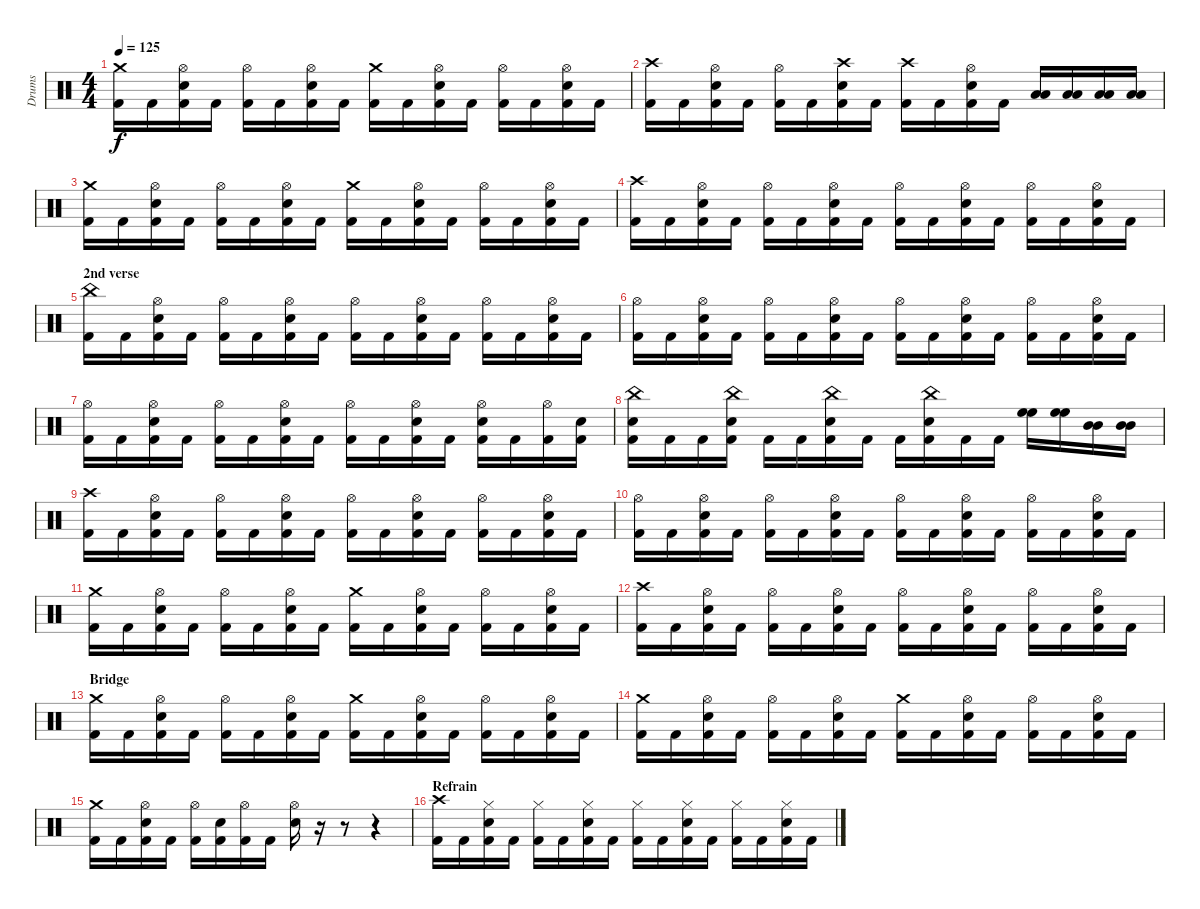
\track ("Drums" "Drums") {instrument percussion}
\staff {score}
\articulation defaults
\ts (4 4)
\tempo 125
\clef neutral
\ks c
("Crash medium (hit)" "Kick (hit) 2").16{dy f} "Kick (hit) 2".16 ("Hi-Hat (open)" "Snare (hit) 2" "Kick (hit) 2").16 "Kick (hit) 2".16 ("Hi-Hat (open)" "Kick (hit) 2").16 "Kick (hit) 2".16 ("Hi-Hat (open)" "Snare (hit) 2" "Kick (hit) 2").16 "Kick (hit) 2".16 ("Crash medium (hit)" "Kick (hit) 2").16 "Kick (hit) 2".16 ("Hi-Hat (open)" "Snare (hit) 2" "Kick (hit) 2").16 "Kick (hit) 2".16 ("Hi-Hat (open)" "Kick (hit) 2").16 "Kick (hit) 2".16 ("Hi-Hat (open)" "Snare (hit) 2" "Kick (hit) 2").16 "Kick (hit) 2".16 |
("Crash high (hit)" "Kick (hit) 2").16 "Kick (hit) 2".16 ("Hi-Hat (open)" "Snare (hit) 2" "Kick (hit) 2").16 "Kick (hit) 2".16 ("Hi-Hat (open)" "Kick (hit) 2").16 "Kick (hit) 2".16 ("Crash high (hit)" "Snare (hit) 2" "Kick (hit) 2").16 "Kick (hit) 2".16 ("Crash high (hit)" "Kick (hit) 2").16 "Kick (hit) 2".16 ("Hi-Hat (open)" "Snare (hit) 2" "Kick (hit) 2").16 "Kick (hit) 2".16 ("Low Tom (hit)" "Low Tom (hit)").16 ("Low Tom (hit)" "Low Tom (hit)").16 ("Low Floor Tom (hit)" "Low Floor Tom (hit)").16 ("Low Floor Tom (hit)" "Low Floor Tom (hit)").16 |
("Crash medium (hit)" "Kick (hit) 2").16 "Kick (hit) 2".16 ("Hi-Hat (open)" "Snare (hit) 2" "Kick (hit) 2").16 "Kick (hit) 2".16 ("Hi-Hat (open)" "Kick (hit) 2").16 "Kick (hit) 2".16 ("Hi-Hat (open)" "Snare (hit) 2" "Kick (hit) 2").16 "Kick (hit) 2".16 ("Crash medium (hit)" "Kick (hit) 2").16 "Kick (hit) 2".16 ("Hi-Hat (open)" "Snare (hit) 2" "Kick (hit) 2").16 "Kick (hit) 2".16 ("Hi-Hat (open)" "Kick (hit) 2").16 "Kick (hit) 2".16 ("Hi-Hat (open)" "Snare (hit) 2" "Kick (hit) 2").16 "Kick (hit) 2".16 |
("Crash high (hit)" "Kick (hit) 2").16 "Kick (hit) 2".16 ("Hi-Hat (open)" "Snare (hit) 2" "Kick (hit) 2").16 "Kick (hit) 2".16 ("Hi-Hat (open)" "Kick (hit) 2").16 "Kick (hit) 2".16 ("Hi-Hat (open)" "Snare (hit) 2" "Kick (hit) 2").16 "Kick (hit) 2".16 ("Hi-Hat (open)" "Kick (hit) 2").16 "Kick (hit) 2".16 ("Hi-Hat (open)" "Snare (hit) 2" "Kick (hit) 2").16 "Kick (hit) 2".16 ("Hi-Hat (open)" "Kick (hit) 2").16 "Kick (hit) 2".16 ("Hi-Hat (open)" "Snare (hit) 2" "Kick (hit) 2").16 "Kick (hit) 2".16 |
\section ("" "2nd verse")
("China (hit)" "Kick (hit) 2").16 "Kick (hit) 2".16 ("Hi-Hat (open)" "Snare (hit) 2" "Kick (hit) 2").16 "Kick (hit) 2".16 ("Hi-Hat (open)" "Kick (hit) 2").16 "Kick (hit) 2".16 ("Hi-Hat (open)" "Snare (hit) 2" "Kick (hit) 2").16 "Kick (hit) 2".16 ("Hi-Hat (open)" "Kick (hit) 2").16 "Kick (hit) 2".16 ("Hi-Hat (open)" "Snare (hit) 2" "Kick (hit) 2").16 "Kick (hit) 2".16 ("Hi-Hat (open)" "Kick (hit) 2").16 "Kick (hit) 2".16 ("Hi-Hat (open)" "Snare (hit) 2" "Kick (hit) 2").16 "Kick (hit) 2".16 |
("Hi-Hat (open)" "Kick (hit) 2").16 "Kick (hit) 2".16 ("Hi-Hat (open)" "Snare (hit) 2" "Kick (hit) 2").16 "Kick (hit) 2".16 ("Hi-Hat (open)" "Kick (hit) 2").16 "Kick (hit) 2".16 ("Hi-Hat (open)" "Snare (hit) 2" "Kick (hit) 2").16 "Kick (hit) 2".16 ("Hi-Hat (open)" "Kick (hit) 2").16 "Kick (hit) 2".16 ("Hi-Hat (open)" "Snare (hit) 2" "Kick (hit) 2").16 "Kick (hit) 2".16 ("Hi-Hat (open)" "Kick (hit) 2").16 "Kick (hit) 2".16 ("Hi-Hat (open)" "Snare (hit) 2" "Kick (hit) 2").16 "Kick (hit) 2".16 |
("Hi-Hat (open)" "Kick (hit) 2").16 "Kick (hit) 2".16 ("Hi-Hat (open)" "Snare (hit) 2" "Kick (hit) 2").16 "Kick (hit) 2".16 ("Hi-Hat (open)" "Kick (hit) 2").16 "Kick (hit) 2".16 ("Hi-Hat (open)" "Snare (hit) 2" "Kick (hit) 2").16 "Kick (hit) 2".16 ("Hi-Hat (open)" "Kick (hit) 2").16 "Kick (hit) 2".16 ("Hi-Hat (open)" "Snare (hit) 2" "Kick (hit) 2").16 "Kick (hit) 2".16 ("Hi-Hat (open)" "Snare (hit) 2" "Kick (hit) 2").16 "Kick (hit) 2".16 ("Hi-Hat (open)" "Kick (hit) 2").16 ("Snare (hit) 2" "Kick (hit) 2").16 |
("China (hit)" "Snare (hit) 2" "Kick (hit) 2").16 "Kick (hit) 2".16 "Kick (hit) 2".16 ("China (hit)" "Snare (hit) 2" "Kick (hit) 2").16 "Kick (hit) 2".16 "Kick (hit) 2".16 ("China (hit)" "Snare (hit) 2" "Kick (hit) 2").16 "Kick (hit) 2".16 "Kick (hit) 2".16 ("China (hit)" "Snare (hit) 2" "Kick (hit) 2").16 "Kick (hit) 2".16 "Kick (hit) 2".16 ("High Floor Tom (hit)" "High Floor Tom (hit)").16 ("High Floor Tom (hit)" "High Floor Tom (hit)").16 ("Mid Tom (hit)" "Mid Tom (hit)").16 ("Mid Tom (hit)" "Mid Tom (hit)").16 |
("Crash high (hit)" "Kick (hit) 2").16 "Kick (hit) 2".16 ("Hi-Hat (open)" "Snare (hit) 2" "Kick (hit) 2").16 "Kick (hit) 2".16 ("Hi-Hat (open)" "Kick (hit) 2").16 "Kick (hit) 2".16 ("Hi-Hat (open)" "Snare (hit) 2" "Kick (hit) 2").16 "Kick (hit) 2".16 ("Hi-Hat (open)" "Kick (hit) 2").16 "Kick (hit) 2".16 ("Hi-Hat (open)" "Snare (hit) 2" "Kick (hit) 2").16 "Kick (hit) 2".16 ("Hi-Hat (open)" "Kick (hit) 2").16 "Kick (hit) 2".16 ("Hi-Hat (open)" "Snare (hit) 2" "Kick (hit) 2").16 "Kick (hit) 2".16 |
("Hi-Hat (open)" "Kick (hit) 2").16 "Kick (hit) 2".16 ("Hi-Hat (open)" "Snare (hit) 2" "Kick (hit) 2").16 "Kick (hit) 2".16 ("Hi-Hat (open)" "Kick (hit) 2").16 "Kick (hit) 2".16 ("Hi-Hat (open)" "Snare (hit) 2" "Kick (hit) 2").16 "Kick (hit) 2".16 ("Hi-Hat (open)" "Kick (hit) 2").16 "Kick (hit) 2".16 ("Hi-Hat (open)" "Snare (hit) 2" "Kick (hit) 2").16 "Kick (hit) 2".16 ("Hi-Hat (open)" "Kick (hit) 2").16 "Kick (hit) 2".16 ("Hi-Hat (open)" "Snare (hit) 2" "Kick (hit) 2").16 "Kick (hit) 2".16 |
("Crash medium (hit)" "Kick (hit) 2").16 "Kick (hit) 2".16 ("Hi-Hat (open)" "Snare (hit) 2" "Kick (hit) 2").16 "Kick (hit) 2".16 ("Hi-Hat (open)" "Kick (hit) 2").16 "Kick (hit) 2".16 ("Hi-Hat (open)" "Snare (hit) 2" "Kick (hit) 2").16 "Kick (hit) 2".16 ("Crash medium (hit)" "Kick (hit) 2").16 "Kick (hit) 2".16 ("Hi-Hat (open)" "Snare (hit) 2" "Kick (hit) 2").16 "Kick (hit) 2".16 ("Hi-Hat (open)" "Kick (hit) 2").16 "Kick (hit) 2".16 ("Hi-Hat (open)" "Snare (hit) 2" "Kick (hit) 2").16 "Kick (hit) 2".16 |
("Crash high (hit)" "Kick (hit) 2").16 "Kick (hit) 2".16 ("Hi-Hat (open)" "Snare (hit) 2" "Kick (hit) 2").16 "Kick (hit) 2".16 ("Hi-Hat (open)" "Kick (hit) 2").16 "Kick (hit) 2".16 ("Hi-Hat (open)" "Snare (hit) 2" "Kick (hit) 2").16 "Kick (hit) 2".16 ("Hi-Hat (open)" "Kick (hit) 2").16 "Kick (hit) 2".16 ("Hi-Hat (open)" "Snare (hit) 2" "Kick (hit) 2").16 "Kick (hit) 2".16 ("Hi-Hat (open)" "Kick (hit) 2").16 "Kick (hit) 2".16 ("Hi-Hat (open)" "Snare (hit) 2" "Kick (hit) 2").16 "Kick (hit) 2".16 |
\section ("" "Bridge")
("Crash medium (hit)" "Kick (hit) 2").16 "Kick (hit) 2".16 ("Hi-Hat (open)" "Snare (hit) 2" "Kick (hit) 2").16 "Kick (hit) 2".16 ("Hi-Hat (open)" "Kick (hit) 2").16 "Kick (hit) 2".16 ("Hi-Hat (open)" "Snare (hit) 2" "Kick (hit) 2").16 "Kick (hit) 2".16 ("Crash medium (hit)" "Kick (hit) 2").16 "Kick (hit) 2".16 ("Hi-Hat (open)" "Snare (hit) 2" "Kick (hit) 2").16 "Kick (hit) 2".16 ("Hi-Hat (open)" "Kick (hit) 2").16 "Kick (hit) 2".16 ("Hi-Hat (open)" "Snare (hit) 2" "Kick (hit) 2").16 "Kick (hit) 2".16 |
("Crash medium (hit)" "Kick (hit) 2").16 "Kick (hit) 2".16 ("Hi-Hat (open)" "Snare (hit) 2" "Kick (hit) 2").16 "Kick (hit) 2".16 ("Hi-Hat (open)" "Kick (hit) 2").16 "Kick (hit) 2".16 ("Hi-Hat (open)" "Snare (hit) 2" "Kick (hit) 2").16 "Kick (hit) 2".16 ("Crash medium (hit)" "Kick (hit) 2").16 "Kick (hit) 2".16 ("Hi-Hat (open)" "Snare (hit) 2" "Kick (hit) 2").16 "Kick (hit) 2".16 ("Hi-Hat (open)" "Kick (hit) 2").16 "Kick (hit) 2".16 ("Hi-Hat (open)" "Snare (hit) 2" "Kick (hit) 2").16 "Kick (hit) 2".16 |
("Crash medium (hit)" "Kick (hit) 2").16 "Kick (hit) 2".16 ("Hi-Hat (open)" "Snare (hit) 2" "Kick (hit) 2").16 "Kick (hit) 2".16 ("Hi-Hat (open)" "Kick (hit) 2").16 ("Snare (hit) 2" "Kick (hit) 2").16 ("Hi-Hat (open)" "Kick (hit) 2").16 "Kick (hit) 2".16 ("Hi-Hat (open)" "Snare (hit) 2").16 r.16 r.8 r.4 |
\section ("" "Refrain")
("Crash high (hit)" "Kick (hit) 2").16 "Kick (hit) 2".16 ("Hi-Hat (closed)" "Snare (hit) 2" "Kick (hit) 2").16 "Kick (hit) 2".16 ("Hi-Hat (closed)" "Kick (hit) 2").16 "Kick (hit) 2".16 ("Hi-Hat (closed)" "Snare (hit) 2" "Kick (hit) 2").16 "Kick (hit) 2".16 ("Hi-Hat (closed)" "Kick (hit) 2").16 "Kick (hit) 2".16 ("Hi-Hat (closed)" "Snare (hit) 2" "Kick (hit) 2").16 "Kick (hit) 2".16 ("Hi-Hat (closed)" "Kick (hit) 2").16 "Kick (hit) 2".16 ("Hi-Hat (closed)" "Snare (hit) 2" "Kick (hit) 2").16 "Kick (hit) 2".16
